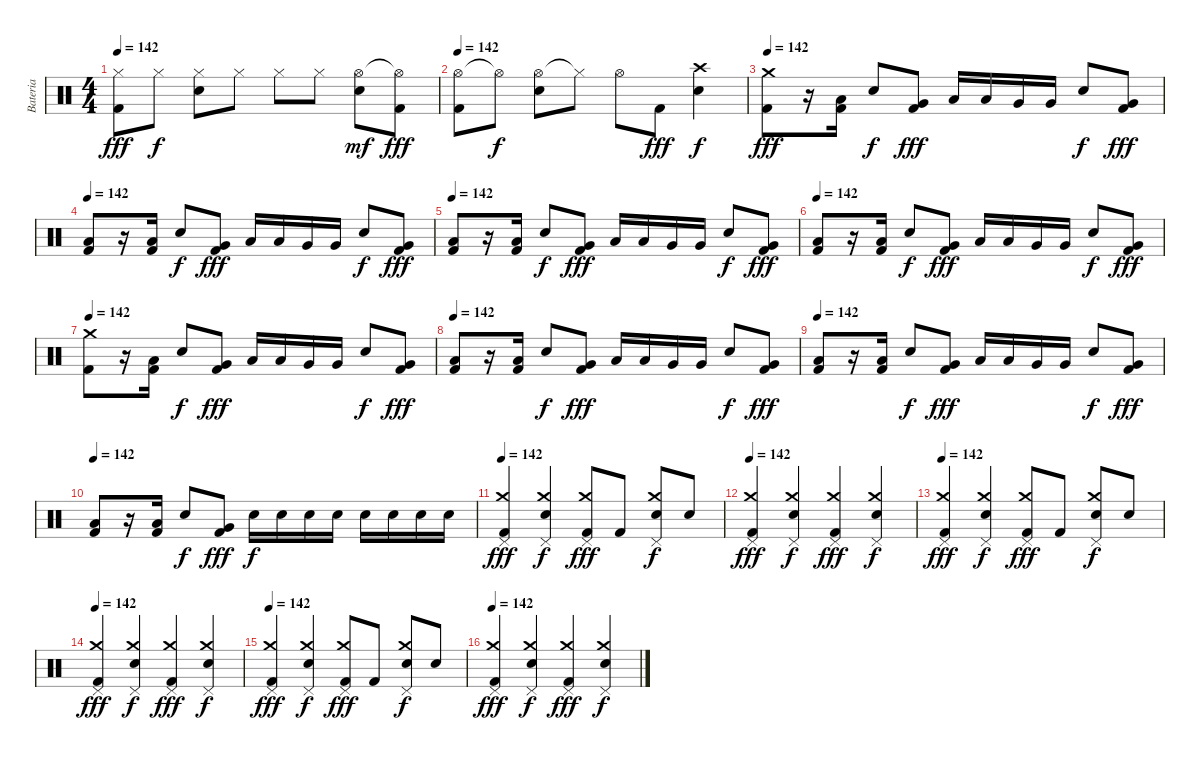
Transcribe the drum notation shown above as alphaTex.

\track ("Bateria" "Bateria") {instrument percussion}
\staff {score}
\articulation defaults
\ts (4 4)
\tempo 142
\clef neutral
\ks c
("Hi-Hat (closed)" "Kick (hit) 2").8{dy fff} "Hi-Hat (closed)".8{dy f} ("Hi-Hat (closed)" "Electric Snare (hit)").8 "Hi-Hat (closed)".8 "Hi-Hat (closed)".8 "Hi-Hat (closed)".8 ("Hi-Hat (open)" "Electric Snare (hit)").8{dy mf} ("Hi-Hat (open)"{t} "Kick (hit) 2").8{dy fff} |
\tempo 142
("Hi-Hat (open)" "Kick (hit) 2").8 "Hi-Hat (open)"{t}.8{dy f} ("Hi-Hat (open)" "Electric Snare (hit)").8 "Hi-Hat (closed)"{t}.8 "Hi-Hat (open)".8 "Kick (hit) 2".8{dy fff} ("Crash high (hit)" "Electric Snare (hit)").4{dy f} |
\tempo 142
("Crash medium (hit)" "Kick (hit) 2").8{dy fff} r.16 ("Low Tom (hit)" "Kick (hit) 2").16 "Electric Snare (hit)".8{dy f} ("Very Low Tom (hit)" "Kick (hit) 2").8{dy fff} "Low Tom (hit)".16 "Low Tom (hit)".16 "Very Low Tom (hit)".16 "Very Low Tom (hit)".16 "Electric Snare (hit)".8{dy f} ("Very Low Tom (hit)" "Kick (hit) 2").8{dy fff} |
\tempo 142
("Low Tom (hit)" "Kick (hit) 2").8 r.16 ("Low Tom (hit)" "Kick (hit) 2").16 "Electric Snare (hit)".8{dy f} ("Very Low Tom (hit)" "Kick (hit) 2").8{dy fff} "Low Tom (hit)".16 "Low Tom (hit)".16 "Very Low Tom (hit)".16 "Very Low Tom (hit)".16 "Electric Snare (hit)".8{dy f} ("Very Low Tom (hit)" "Kick (hit) 2").8{dy fff} |
\tempo 142
("Low Tom (hit)" "Kick (hit) 2").8 r.16 ("Low Tom (hit)" "Kick (hit) 2").16 "Electric Snare (hit)".8{dy f} ("Very Low Tom (hit)" "Kick (hit) 2").8{dy fff} "Low Tom (hit)".16 "Low Tom (hit)".16 "Very Low Tom (hit)".16 "Very Low Tom (hit)".16 "Electric Snare (hit)".8{dy f} ("Very Low Tom (hit)" "Kick (hit) 2").8{dy fff} |
\tempo 142
("Low Tom (hit)" "Kick (hit) 2").8 r.16 ("Low Tom (hit)" "Kick (hit) 2").16 "Electric Snare (hit)".8{dy f} ("Very Low Tom (hit)" "Kick (hit) 2").8{dy fff} "Low Tom (hit)".16 "Low Tom (hit)".16 "Very Low Tom (hit)".16 "Very Low Tom (hit)".16 "Electric Snare (hit)".8{dy f} ("Very Low Tom (hit)" "Kick (hit) 2").8{dy fff} |
\tempo 142
("Crash medium (hit)" "Kick (hit) 2").8 r.16 ("Low Tom (hit)" "Kick (hit) 2").16 "Electric Snare (hit)".8{dy f} ("Very Low Tom (hit)" "Kick (hit) 2").8{dy fff} "Low Tom (hit)".16 "Low Tom (hit)".16 "Very Low Tom (hit)".16 "Very Low Tom (hit)".16 "Electric Snare (hit)".8{dy f} ("Very Low Tom (hit)" "Kick (hit) 2").8{dy fff} |
\tempo 142
("Low Tom (hit)" "Kick (hit) 2").8 r.16 ("Low Tom (hit)" "Kick (hit) 2").16 "Electric Snare (hit)".8{dy f} ("Very Low Tom (hit)" "Kick (hit) 2").8{dy fff} "Low Tom (hit)".16 "Low Tom (hit)".16 "Very Low Tom (hit)".16 "Very Low Tom (hit)".16 "Electric Snare (hit)".8{dy f} ("Very Low Tom (hit)" "Kick (hit) 2").8{dy fff} |
\tempo 142
("Low Tom (hit)" "Kick (hit) 2").8 r.16 ("Low Tom (hit)" "Kick (hit) 2").16 "Electric Snare (hit)".8{dy f} ("Very Low Tom (hit)" "Kick (hit) 2").8{dy fff} "Low Tom (hit)".16 "Low Tom (hit)".16 "Very Low Tom (hit)".16 "Very Low Tom (hit)".16 "Electric Snare (hit)".8{dy f} ("Very Low Tom (hit)" "Kick (hit) 2").8{dy fff} |
\tempo 142
("Low Tom (hit)" "Kick (hit) 2").8 r.16 ("Low Tom (hit)" "Kick (hit) 2").16 "Electric Snare (hit)".8{dy f} ("Very Low Tom (hit)" "Kick (hit) 2").8{dy fff} "Electric Snare (hit)".16{dy f} "Electric Snare (hit)".16 "Electric Snare (hit)".16 "Electric Snare (hit)".16 "Electric Snare (hit)".16 "Electric Snare (hit)".16 "Electric Snare (hit)".16 "Electric Snare (hit)".16 |
\tempo 142
("Crash medium (hit)" "Pedal Hi-Hat (hit)" "Kick (hit) 2").4{dy fff} ("Crash medium (hit)" "Pedal Hi-Hat (hit)" "Electric Snare (hit)").4{dy f} ("Crash medium (hit)" "Pedal Hi-Hat (hit)" "Kick (hit) 2").8{dy fff} "Kick (hit) 2".8 ("Crash medium (hit)" "Pedal Hi-Hat (hit)" "Electric Snare (hit)").8{dy f} "Electric Snare (hit)".8 |
\tempo 142
("Crash medium (hit)" "Pedal Hi-Hat (hit)" "Kick (hit) 2").4{dy fff} ("Crash medium (hit)" "Pedal Hi-Hat (hit)" "Electric Snare (hit)").4{dy f} ("Crash medium (hit)" "Pedal Hi-Hat (hit)" "Kick (hit) 2").4{dy fff} ("Crash medium (hit)" "Pedal Hi-Hat (hit)" "Electric Snare (hit)").4{dy f} |
\tempo 142
("Crash medium (hit)" "Pedal Hi-Hat (hit)" "Kick (hit) 2").4{dy fff} ("Crash medium (hit)" "Pedal Hi-Hat (hit)" "Electric Snare (hit)").4{dy f} ("Crash medium (hit)" "Pedal Hi-Hat (hit)" "Kick (hit) 2").8{dy fff} "Kick (hit) 2".8 ("Crash medium (hit)" "Pedal Hi-Hat (hit)" "Electric Snare (hit)").8{dy f} "Electric Snare (hit)".8 |
\tempo 142
("Crash medium (hit)" "Pedal Hi-Hat (hit)" "Kick (hit) 2").4{dy fff} ("Crash medium (hit)" "Pedal Hi-Hat (hit)" "Electric Snare (hit)").4{dy f} ("Crash medium (hit)" "Pedal Hi-Hat (hit)" "Kick (hit) 2").4{dy fff} ("Crash medium (hit)" "Pedal Hi-Hat (hit)" "Electric Snare (hit)").4{dy f} |
\tempo 142
("Crash medium (hit)" "Pedal Hi-Hat (hit)" "Kick (hit) 2").4{dy fff} ("Crash medium (hit)" "Pedal Hi-Hat (hit)" "Electric Snare (hit)").4{dy f} ("Crash medium (hit)" "Pedal Hi-Hat (hit)" "Kick (hit) 2").8{dy fff} "Kick (hit) 2".8 ("Crash medium (hit)" "Pedal Hi-Hat (hit)" "Electric Snare (hit)").8{dy f} "Electric Snare (hit)".8 |
\tempo 142
("Crash medium (hit)" "Pedal Hi-Hat (hit)" "Kick (hit) 2").4{dy fff} ("Crash medium (hit)" "Pedal Hi-Hat (hit)" "Electric Snare (hit)").4{dy f} ("Crash medium (hit)" "Pedal Hi-Hat (hit)" "Kick (hit) 2").4{dy fff} ("Crash medium (hit)" "Pedal Hi-Hat (hit)" "Electric Snare (hit)").4{dy f}
